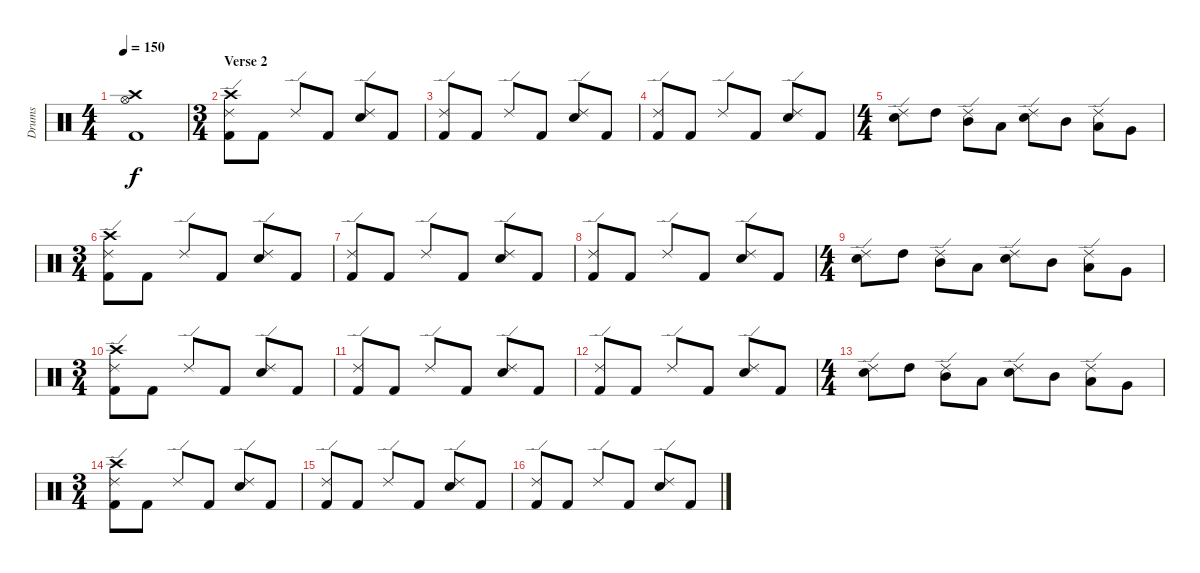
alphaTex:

\track ("Drums" "Drums") {instrument percussion}
\staff {score}
\articulation defaults
\ts (4 4)
\tempo 150
\clef neutral
\ks c
("Crash high (hit)" "Hi-Hat (open)" "Kick (hit) 2").1{dy f} |
\ts (3 4)
\section ("" "Verse 2")
("Crash high (hit)" "Ride (edge) 2" "Kick (hit) 2").8 "Kick (hit) 2".8 "Ride (edge) 2".8 "Kick (hit) 2".8 ("Ride (edge) 2" "Electric Snare (hit)").8 "Kick (hit) 2".8 |
("Ride (edge) 2" "Kick (hit) 2").8 "Kick (hit) 2".8 "Ride (edge) 2".8 "Kick (hit) 2".8 ("Ride (edge) 2" "Electric Snare (hit)").8 "Kick (hit) 2".8 |
("Ride (edge) 2" "Kick (hit) 2").8 "Kick (hit) 2".8 "Ride (edge) 2".8 "Kick (hit) 2".8 ("Ride (edge) 2" "Electric Snare (hit)").8 "Kick (hit) 2".8 |
\ts (4 4)
("Ride (edge) 2" "Electric Snare (hit)").8 "High Tom (hit)".8 ("Ride (edge) 2" "Mid Tom (hit)").8 "Low Tom (hit)".8 ("Ride (edge) 2" "Electric Snare (hit)").8 "Mid Tom (hit)".8 ("Ride (edge) 2" "Low Tom (hit)").8 "Very Low Tom (hit)".8 |
\ts (3 4)
("Crash high (hit)" "Ride (edge) 2" "Kick (hit) 2").8 "Kick (hit) 2".8 "Ride (edge) 2".8 "Kick (hit) 2".8 ("Ride (edge) 2" "Electric Snare (hit)").8 "Kick (hit) 2".8 |
("Ride (edge) 2" "Kick (hit) 2").8 "Kick (hit) 2".8 "Ride (edge) 2".8 "Kick (hit) 2".8 ("Ride (edge) 2" "Electric Snare (hit)").8 "Kick (hit) 2".8 |
("Ride (edge) 2" "Kick (hit) 2").8 "Kick (hit) 2".8 "Ride (edge) 2".8 "Kick (hit) 2".8 ("Ride (edge) 2" "Electric Snare (hit)").8 "Kick (hit) 2".8 |
\ts (4 4)
("Ride (edge) 2" "Electric Snare (hit)").8 "High Tom (hit)".8 ("Ride (edge) 2" "Mid Tom (hit)").8 "Low Tom (hit)".8 ("Ride (edge) 2" "Electric Snare (hit)").8 "Mid Tom (hit)".8 ("Ride (edge) 2" "Low Tom (hit)").8 "Very Low Tom (hit)".8 |
\ts (3 4)
("Crash high (hit)" "Ride (edge) 2" "Kick (hit) 2").8 "Kick (hit) 2".8 "Ride (edge) 2".8 "Kick (hit) 2".8 ("Ride (edge) 2" "Electric Snare (hit)").8 "Kick (hit) 2".8 |
("Ride (edge) 2" "Kick (hit) 2").8 "Kick (hit) 2".8 "Ride (edge) 2".8 "Kick (hit) 2".8 ("Ride (edge) 2" "Electric Snare (hit)").8 "Kick (hit) 2".8 |
("Ride (edge) 2" "Kick (hit) 2").8 "Kick (hit) 2".8 "Ride (edge) 2".8 "Kick (hit) 2".8 ("Ride (edge) 2" "Electric Snare (hit)").8 "Kick (hit) 2".8 |
\ts (4 4)
("Ride (edge) 2" "Electric Snare (hit)").8 "High Tom (hit)".8 ("Ride (edge) 2" "Mid Tom (hit)").8 "Low Tom (hit)".8 ("Ride (edge) 2" "Electric Snare (hit)").8 "Mid Tom (hit)".8 ("Ride (edge) 2" "Low Tom (hit)").8 "Very Low Tom (hit)".8 |
\ts (3 4)
("Crash high (hit)" "Ride (edge) 2" "Kick (hit) 2").8 "Kick (hit) 2".8 "Ride (edge) 2".8 "Kick (hit) 2".8 ("Ride (edge) 2" "Electric Snare (hit)").8 "Kick (hit) 2".8 |
("Ride (edge) 2" "Kick (hit) 2").8 "Kick (hit) 2".8 "Ride (edge) 2".8 "Kick (hit) 2".8 ("Ride (edge) 2" "Electric Snare (hit)").8 "Kick (hit) 2".8 |
("Ride (edge) 2" "Kick (hit) 2").8 "Kick (hit) 2".8 "Ride (edge) 2".8 "Kick (hit) 2".8 ("Ride (edge) 2" "Electric Snare (hit)").8 "Kick (hit) 2".8
